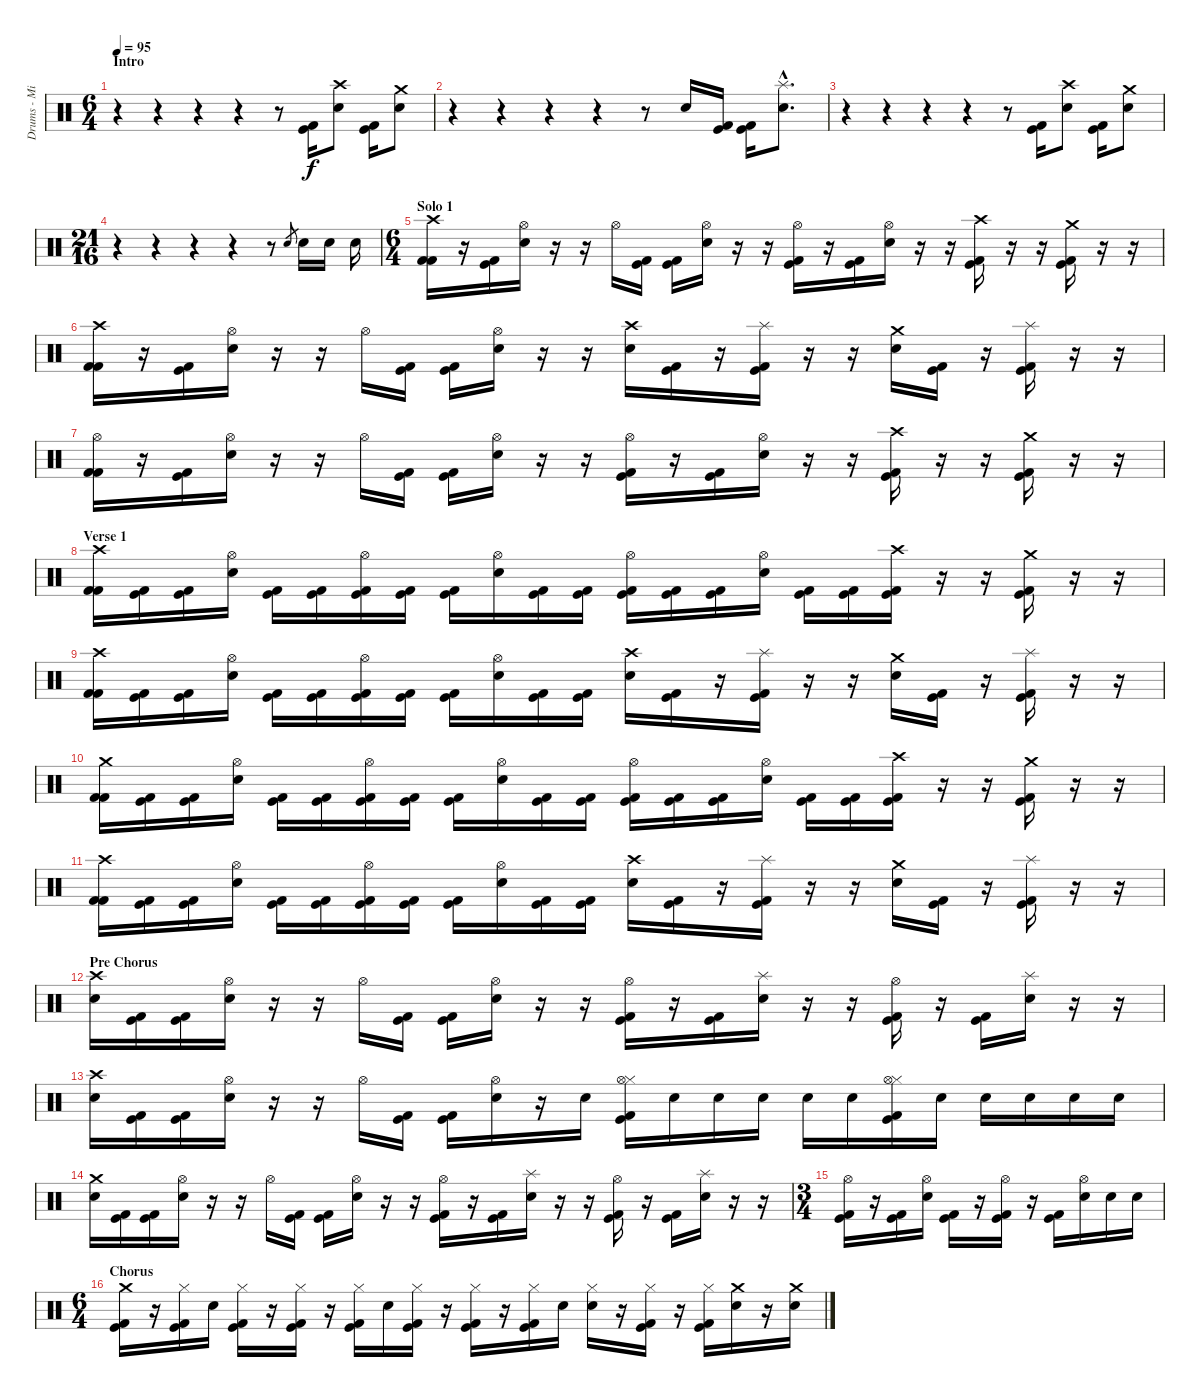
\track ("Drums - Mikkey Dee" "Drums - Mi") {instrument percussion}
\staff {score}
\articulation defaults
\ts (6 4)
\section ("" "Intro")
\tempo 95
\clef neutral
\ks c
r.4{dy f} r.4 r.4 r.4 r.8 ("Kick (hit)" "Kick (hit) 2").16 ("Crash high (hit)" "Snare (hit) 2").8 ("Kick (hit)" "Kick (hit) 2").16 ("Crash medium (hit)" "Snare (hit) 2").8 |
r.4 r.4 r.4 r.4 r.8 "Snare (hit) 2".16 ("Kick (hit)" "Kick (hit) 2").16 ("Kick (hit)" "Kick (hit) 2").16 ("Splash (hit)"{hac} "Snare (hit) 2"{hac}).8{d} |
r.4 r.4 r.4 r.4 r.8 ("Kick (hit)" "Kick (hit) 2").16 ("Crash high (hit)" "Snare (hit) 2").8 ("Kick (hit)" "Kick (hit) 2").16 ("Crash medium (hit)" "Snare (hit) 2").8 |
\ts (21 16)
r.4 r.4 r.4 r.4 r.8 "Snare (hit) 2".8{gr} "Snare (hit) 2".16 "Snare (hit) 2".16 "Snare (hit) 2".16 |
\ts (6 4)
\section ("" "Solo 1")
("Crash high (hit)" "Kick (hit) 2" "Kick (hit) 2").16 r.16 ("Kick (hit)" "Kick (hit) 2").16 ("Hi-Hat (open)" "Snare (hit) 2").16 r.16 r.16 "Hi-Hat (open)".16 ("Kick (hit)" "Kick (hit) 2").16 ("Kick (hit)" "Kick (hit) 2").16 ("Hi-Hat (open)" "Snare (hit) 2").16 r.16 r.16 ("Hi-Hat (open)" "Kick (hit)" "Kick (hit) 2").16 r.16 ("Kick (hit)" "Kick (hit) 2").16 ("Hi-Hat (open)" "Snare (hit) 2").16 r.16 r.16 ("Crash high (hit)" "Kick (hit)" "Kick (hit) 2").16 r.16 r.16 ("Crash medium (hit)" "Kick (hit)" "Kick (hit) 2").16 r.16 r.16 |
("Crash high (hit)" "Kick (hit) 2" "Kick (hit) 2").16 r.16 ("Kick (hit)" "Kick (hit) 2").16 ("Hi-Hat (open)" "Snare (hit) 2").16 r.16 r.16 "Hi-Hat (open)".16 ("Kick (hit)" "Kick (hit) 2").16 ("Kick (hit)" "Kick (hit) 2").16 ("Hi-Hat (open)" "Snare (hit) 2").16 r.16 r.16 ("Crash high (hit)" "Snare (hit) 2").16 ("Kick (hit)" "Kick (hit) 2").16 r.16 ("Splash (hit)" "Kick (hit)" "Kick (hit) 2").16 r.16 r.16 ("Crash medium (hit)" "Snare (hit) 2").16 ("Kick (hit)" "Kick (hit) 2").16 r.16 ("Splash (hit)" "Kick (hit)" "Kick (hit) 2").16 r.16 r.16 |
("Hi-Hat (open)" "Kick (hit) 2" "Kick (hit) 2").16 r.16 ("Kick (hit)" "Kick (hit) 2").16 ("Hi-Hat (open)" "Snare (hit) 2").16 r.16 r.16 "Hi-Hat (open)".16 ("Kick (hit)" "Kick (hit) 2").16 ("Kick (hit)" "Kick (hit) 2").16 ("Hi-Hat (open)" "Snare (hit) 2").16 r.16 r.16 ("Hi-Hat (open)" "Kick (hit)" "Kick (hit) 2").16 r.16 ("Kick (hit)" "Kick (hit) 2").16 ("Hi-Hat (open)" "Snare (hit) 2").16 r.16 r.16 ("Crash high (hit)" "Kick (hit)" "Kick (hit) 2").16 r.16 r.16 ("Crash medium (hit)" "Kick (hit)" "Kick (hit) 2").16 r.16 r.16 |
\section ("" "Verse 1")
("Crash high (hit)" "Kick (hit) 2" "Kick (hit) 2").16 ("Kick (hit)" "Kick (hit) 2").16 ("Kick (hit)" "Kick (hit) 2").16 ("Hi-Hat (open)" "Snare (hit) 2").16 ("Kick (hit)" "Kick (hit) 2").16 ("Kick (hit)" "Kick (hit) 2").16 ("Hi-Hat (open)" "Kick (hit)" "Kick (hit) 2").16 ("Kick (hit)" "Kick (hit) 2").16 ("Kick (hit)" "Kick (hit) 2").16 ("Hi-Hat (open)" "Snare (hit) 2").16 ("Kick (hit)" "Kick (hit) 2").16 ("Kick (hit)" "Kick (hit) 2").16 ("Hi-Hat (open)" "Kick (hit)" "Kick (hit) 2").16 ("Kick (hit)" "Kick (hit) 2").16 ("Kick (hit)" "Kick (hit) 2").16 ("Hi-Hat (open)" "Snare (hit) 2").16 ("Kick (hit)" "Kick (hit) 2").16 ("Kick (hit)" "Kick (hit) 2").16 ("Crash high (hit)" "Kick (hit)" "Kick (hit) 2").16 r.16 r.16 ("Crash medium (hit)" "Kick (hit)" "Kick (hit) 2").16 r.16 r.16 |
("Crash high (hit)" "Kick (hit) 2" "Kick (hit) 2").16 ("Kick (hit)" "Kick (hit) 2").16 ("Kick (hit)" "Kick (hit) 2").16 ("Hi-Hat (open)" "Snare (hit) 2").16 ("Kick (hit)" "Kick (hit) 2").16 ("Kick (hit)" "Kick (hit) 2").16 ("Hi-Hat (open)" "Kick (hit)" "Kick (hit) 2").16 ("Kick (hit)" "Kick (hit) 2").16 ("Kick (hit)" "Kick (hit) 2").16 ("Hi-Hat (open)" "Snare (hit) 2").16 ("Kick (hit)" "Kick (hit) 2").16 ("Kick (hit)" "Kick (hit) 2").16 ("Crash high (hit)" "Snare (hit) 2").16 ("Kick (hit)" "Kick (hit) 2").16 r.16 ("Splash (hit)" "Kick (hit)" "Kick (hit) 2").16 r.16 r.16 ("Crash medium (hit)" "Snare (hit) 2").16 ("Kick (hit)" "Kick (hit) 2").16 r.16 ("Splash (hit)" "Kick (hit)" "Kick (hit) 2").16 r.16 r.16 |
("Crash medium (hit)" "Kick (hit) 2" "Kick (hit) 2").16 ("Kick (hit)" "Kick (hit) 2").16 ("Kick (hit)" "Kick (hit) 2").16 ("Hi-Hat (open)" "Snare (hit) 2").16 ("Kick (hit)" "Kick (hit) 2").16 ("Kick (hit)" "Kick (hit) 2").16 ("Hi-Hat (open)" "Kick (hit)" "Kick (hit) 2").16 ("Kick (hit)" "Kick (hit) 2").16 ("Kick (hit)" "Kick (hit) 2").16 ("Hi-Hat (open)" "Snare (hit) 2").16 ("Kick (hit)" "Kick (hit) 2").16 ("Kick (hit)" "Kick (hit) 2").16 ("Hi-Hat (open)" "Kick (hit)" "Kick (hit) 2").16 ("Kick (hit)" "Kick (hit) 2").16 ("Kick (hit)" "Kick (hit) 2").16 ("Hi-Hat (open)" "Snare (hit) 2").16 ("Kick (hit)" "Kick (hit) 2").16 ("Kick (hit)" "Kick (hit) 2").16 ("Crash high (hit)" "Kick (hit)" "Kick (hit) 2").16 r.16 r.16 ("Crash medium (hit)" "Kick (hit)" "Kick (hit) 2").16 r.16 r.16 |
("Crash high (hit)" "Kick (hit) 2" "Kick (hit) 2").16 ("Kick (hit)" "Kick (hit) 2").16 ("Kick (hit)" "Kick (hit) 2").16 ("Hi-Hat (open)" "Snare (hit) 2").16 ("Kick (hit)" "Kick (hit) 2").16 ("Kick (hit)" "Kick (hit) 2").16 ("Hi-Hat (open)" "Kick (hit)" "Kick (hit) 2").16 ("Kick (hit)" "Kick (hit) 2").16 ("Kick (hit)" "Kick (hit) 2").16 ("Hi-Hat (open)" "Snare (hit) 2").16 ("Kick (hit)" "Kick (hit) 2").16 ("Kick (hit)" "Kick (hit) 2").16 ("Crash high (hit)" "Snare (hit) 2").16 ("Kick (hit)" "Kick (hit) 2").16 r.16 ("Splash (hit)" "Kick (hit)" "Kick (hit) 2").16 r.16 r.16 ("Crash medium (hit)" "Snare (hit) 2").16 ("Kick (hit)" "Kick (hit) 2").16 r.16 ("Splash (hit)" "Kick (hit)" "Kick (hit) 2").16 r.16 r.16 |
\section ("" "Pre Chorus")
("Crash high (hit)" "Snare (hit) 2").16 ("Kick (hit)" "Kick (hit) 2").16 ("Kick (hit)" "Kick (hit) 2").16 ("Hi-Hat (open)" "Snare (hit) 2").16 r.16 r.16 "Hi-Hat (open)".16 ("Kick (hit)" "Kick (hit) 2").16 ("Kick (hit)" "Kick (hit) 2").16 ("Hi-Hat (open)" "Snare (hit) 2").16 r.16 r.16 ("Hi-Hat (open)" "Kick (hit)" "Kick (hit) 2").16 r.16 ("Kick (hit)" "Kick (hit) 2").16 ("Splash (hit)" "Snare (hit) 2").16 r.16 r.16 ("Hi-Hat (open)" "Kick (hit)" "Kick (hit) 2").16 r.16 ("Kick (hit)" "Kick (hit) 2").16 ("Splash (hit)" "Snare (hit) 2").16 r.16 r.16 |
("Crash high (hit)" "Snare (hit) 2").16 ("Kick (hit)" "Kick (hit) 2").16 ("Kick (hit)" "Kick (hit) 2").16 ("Hi-Hat (open)" "Snare (hit) 2").16 r.16 r.16 "Hi-Hat (open)".16 ("Kick (hit)" "Kick (hit) 2").16 ("Kick (hit)" "Kick (hit) 2").16 ("Hi-Hat (open)" "Snare (hit) 2").16 r.16 "Snare (hit) 2".16 ("Hi-Hat (closed)" "Hi-Hat (open)" "Kick (hit)" "Kick (hit) 2").16 "Snare (hit) 2".16 "Snare (hit) 2".16 "Snare (hit) 2".16 "Snare (hit) 2".16 "Snare (hit) 2".16 ("Hi-Hat (closed)" "Hi-Hat (open)" "Kick (hit)" "Kick (hit) 2").16 "Snare (hit) 2".16 "Snare (hit) 2".16 "Snare (hit) 2".16 "Snare (hit) 2".16 "Snare (hit) 2".16 |
("Crash medium (hit)" "Snare (hit) 2").16 ("Kick (hit)" "Kick (hit) 2").16 ("Kick (hit)" "Kick (hit) 2").16 ("Hi-Hat (open)" "Snare (hit) 2").16 r.16 r.16 "Hi-Hat (open)".16 ("Kick (hit)" "Kick (hit) 2").16 ("Kick (hit)" "Kick (hit) 2").16 ("Hi-Hat (open)" "Snare (hit) 2").16 r.16 r.16 ("Hi-Hat (open)" "Kick (hit)" "Kick (hit) 2").16 r.16 ("Kick (hit)" "Kick (hit) 2").16 ("Splash (hit)" "Snare (hit) 2").16 r.16 r.16 ("Hi-Hat (open)" "Kick (hit)" "Kick (hit) 2").16 r.16 ("Kick (hit)" "Kick (hit) 2").16 ("Splash (hit)" "Snare (hit) 2").16 r.16 r.16 |
\ts (3 4)
("Hi-Hat (open)" "Kick (hit)" "Kick (hit) 2").16 r.16 ("Kick (hit)" "Kick (hit) 2").16 ("Hi-Hat (open)" "Snare (hit) 2").16 ("Kick (hit)" "Kick (hit) 2").16 r.16 ("Hi-Hat (open)" "Kick (hit)" "Kick (hit) 2").16 r.16 ("Kick (hit)" "Kick (hit) 2").16 ("Hi-Hat (open)" "Snare (hit) 2").16 "Snare (hit) 2".16 "Snare (hit) 2".16 |
\ts (6 4)
\section ("" "Chorus")
("Crash medium (hit)" "Kick (hit)" "Kick (hit) 2").16 r.16 ("Hi-Hat (closed)" "Kick (hit)" "Kick (hit) 2").16 "Snare (hit) 2".16 ("Hi-Hat (closed)" "Kick (hit)" "Kick (hit) 2").16 r.16 ("Hi-Hat (closed)" "Kick (hit)" "Kick (hit) 2").16 r.16 ("Hi-Hat (closed)" "Kick (hit)" "Kick (hit) 2").16 "Snare (hit) 2".16 ("Hi-Hat (closed)" "Kick (hit)" "Kick (hit) 2").16 r.16 ("Hi-Hat (closed)" "Kick (hit)" "Kick (hit) 2").16 r.16 ("Hi-Hat (closed)" "Kick (hit)" "Kick (hit) 2").16 "Snare (hit) 2".16 ("Hi-Hat (closed)" "Snare (hit) 2").16 r.16 ("Hi-Hat (closed)" "Kick (hit)" "Kick (hit) 2").16 r.16 ("Hi-Hat (closed)" "Kick (hit)" "Kick (hit) 2").16 ("Crash medium (hit)" "Snare (hit) 2").16 r.16 ("Crash medium (hit)" "Snare (hit) 2").16
